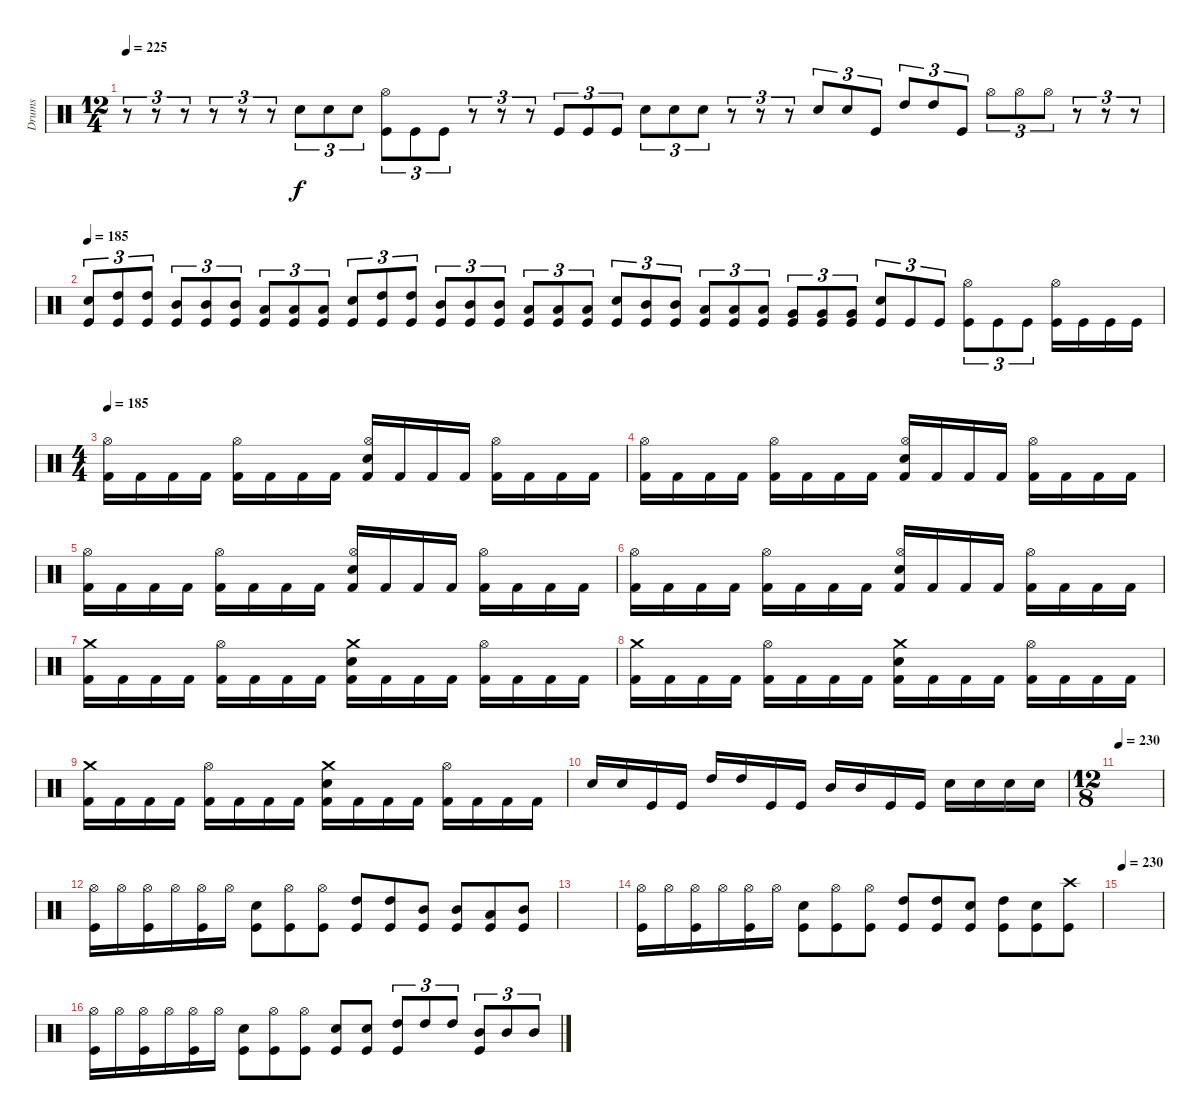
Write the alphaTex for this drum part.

\track ("Drums" "Drums") {instrument percussion}
\staff {score}
\articulation defaults
\ts (12 4)
\tempo 225
\clef neutral
\ks c
r.8{tu (3 2) dy f} r.8{tu (3 2)} r.8{tu (3 2)} r.8{tu (3 2)} r.8{tu (3 2)} r.8{tu (3 2)} "Snare (hit) 2".8{tu (3 2)} "Snare (hit) 2".8{tu (3 2)} "Snare (hit) 2".8{tu (3 2)} ("Kick (hit)" "Hi-Hat (open)").8{tu (3 2)} "Kick (hit)".8{tu (3 2)} "Kick (hit)".8{tu (3 2)} r.8{tu (3 2)} r.8{tu (3 2)} r.8{tu (3 2)} "Kick (hit)".8{tu (3 2)} "Kick (hit)".8{tu (3 2)} "Kick (hit)".8{tu (3 2)} "Snare (hit) 2".8{tu (3 2)} "Snare (hit) 2".8{tu (3 2)} "Snare (hit) 2".8{tu (3 2)} r.8{tu (3 2)} r.8{tu (3 2)} r.8{tu (3 2)} "Snare (hit) 2".8{tu (3 2)} "Snare (hit) 2".8{tu (3 2)} "Kick (hit)".8{tu (3 2)} "High Tom (hit)".8{tu (3 2)} "High Tom (hit)".8{tu (3 2)} "Kick (hit)".8{tu (3 2)} "Hi-Hat (open)".8{tu (3 2)} "Hi-Hat (open)".8{tu (3 2)} "Hi-Hat (open)".8{tu (3 2)} r.8{tu (3 2)} r.8{tu (3 2)} r.8{tu (3 2)} |
\tempo 185
("Kick (hit)" "Snare (hit) 2").8{tu (3 2)} ("Kick (hit)" "High Tom (hit)").8{tu (3 2)} ("Kick (hit)" "High Tom (hit)").8{tu (3 2)} ("Kick (hit)" "Mid Tom (hit)").8{tu (3 2)} ("Kick (hit)" "Mid Tom (hit)").8{tu (3 2)} ("Kick (hit)" "Mid Tom (hit)").8{tu (3 2)} ("Kick (hit)" "Low Tom (hit)").8{tu (3 2)} ("Kick (hit)" "Low Tom (hit)").8{tu (3 2)} ("Kick (hit)" "Low Tom (hit)").8{tu (3 2)} ("Kick (hit)" "Snare (hit) 2").8{tu (3 2)} ("Kick (hit)" "High Tom (hit)").8{tu (3 2)} ("Kick (hit)" "High Tom (hit)").8{tu (3 2)} ("Kick (hit)" "Mid Tom (hit)").8{tu (3 2)} ("Kick (hit)" "Mid Tom (hit)").8{tu (3 2)} ("Kick (hit)" "Mid Tom (hit)").8{tu (3 2)} ("Kick (hit)" "Low Tom (hit)").8{tu (3 2)} ("Kick (hit)" "Low Tom (hit)").8{tu (3 2)} ("Kick (hit)" "Low Tom (hit)").8{tu (3 2)} ("Kick (hit)" "Snare (hit) 2").8{tu (3 2)} ("Kick (hit)" "Mid Tom (hit)").8{tu (3 2)} ("Kick (hit)" "Mid Tom (hit)").8{tu (3 2)} ("Kick (hit)" "Low Tom (hit)").8{tu (3 2)} ("Kick (hit)" "Low Tom (hit)").8{tu (3 2)} ("Kick (hit)" "Low Tom (hit)").8{tu (3 2)} ("Kick (hit)" "Very Low Tom (hit)").8{tu (3 2)} ("Kick (hit)" "Very Low Tom (hit)").8{tu (3 2)} ("Kick (hit)" "Very Low Tom (hit)").8{tu (3 2)} ("Kick (hit)" "Snare (hit) 2").8{tu (3 2)} "Kick (hit)".8{tu (3 2)} "Kick (hit)".8{tu (3 2)} ("Kick (hit)" "Hi-Hat (open)").8{tu (3 2)} "Kick (hit)".8{tu (3 2)} "Kick (hit)".8{tu (3 2)} ("Kick (hit)" "Hi-Hat (open)").16 "Kick (hit)".16 "Kick (hit)".16 "Kick (hit)".16 |
\ts (4 4)
\tempo 185
("Hi-Hat (open)" "Kick (hit) 2").16 "Kick (hit) 2".16 "Kick (hit) 2".16 "Kick (hit) 2".16 ("Hi-Hat (open)" "Kick (hit) 2").16 "Kick (hit) 2".16 "Kick (hit) 2".16 "Kick (hit) 2".16 ("Hi-Hat (open)" "Snare (hit) 2" "Kick (hit) 2").16 "Kick (hit) 2".16 "Kick (hit) 2".16 "Kick (hit) 2".16 ("Hi-Hat (open)" "Kick (hit) 2").16 "Kick (hit) 2".16 "Kick (hit) 2".16 "Kick (hit) 2".16 |
("Hi-Hat (open)" "Kick (hit) 2").16 "Kick (hit) 2".16 "Kick (hit) 2".16 "Kick (hit) 2".16 ("Hi-Hat (open)" "Kick (hit) 2").16 "Kick (hit) 2".16 "Kick (hit) 2".16 "Kick (hit) 2".16 ("Hi-Hat (open)" "Snare (hit) 2" "Kick (hit) 2").16 "Kick (hit) 2".16 "Kick (hit) 2".16 "Kick (hit) 2".16 ("Hi-Hat (open)" "Kick (hit) 2").16 "Kick (hit) 2".16 "Kick (hit) 2".16 "Kick (hit) 2".16 |
("Hi-Hat (open)" "Kick (hit) 2").16 "Kick (hit) 2".16 "Kick (hit) 2".16 "Kick (hit) 2".16 ("Hi-Hat (open)" "Kick (hit) 2").16 "Kick (hit) 2".16 "Kick (hit) 2".16 "Kick (hit) 2".16 ("Hi-Hat (open)" "Snare (hit) 2" "Kick (hit) 2").16 "Kick (hit) 2".16 "Kick (hit) 2".16 "Kick (hit) 2".16 ("Hi-Hat (open)" "Kick (hit) 2").16 "Kick (hit) 2".16 "Kick (hit) 2".16 "Kick (hit) 2".16 |
("Hi-Hat (open)" "Kick (hit) 2").16 "Kick (hit) 2".16 "Kick (hit) 2".16 "Kick (hit) 2".16 ("Hi-Hat (open)" "Kick (hit) 2").16 "Kick (hit) 2".16 "Kick (hit) 2".16 "Kick (hit) 2".16 ("Hi-Hat (open)" "Snare (hit) 2" "Kick (hit) 2").16 "Kick (hit) 2".16 "Kick (hit) 2".16 "Kick (hit) 2".16 ("Hi-Hat (open)" "Kick (hit) 2").16 "Kick (hit) 2".16 "Kick (hit) 2".16 "Kick (hit) 2".16 |
("Crash medium (hit)" "Kick (hit) 2").16 "Kick (hit) 2".16 "Kick (hit) 2".16 "Kick (hit) 2".16 ("Hi-Hat (open)" "Kick (hit) 2").16 "Kick (hit) 2".16 "Kick (hit) 2".16 "Kick (hit) 2".16 ("Crash medium (hit)" "Snare (hit) 2" "Kick (hit) 2").16 "Kick (hit) 2".16 "Kick (hit) 2".16 "Kick (hit) 2".16 ("Hi-Hat (open)" "Kick (hit) 2").16 "Kick (hit) 2".16 "Kick (hit) 2".16 "Kick (hit) 2".16 |
("Crash medium (hit)" "Kick (hit) 2").16 "Kick (hit) 2".16 "Kick (hit) 2".16 "Kick (hit) 2".16 ("Hi-Hat (open)" "Kick (hit) 2").16 "Kick (hit) 2".16 "Kick (hit) 2".16 "Kick (hit) 2".16 ("Crash medium (hit)" "Snare (hit) 2" "Kick (hit) 2").16 "Kick (hit) 2".16 "Kick (hit) 2".16 "Kick (hit) 2".16 ("Hi-Hat (open)" "Kick (hit) 2").16 "Kick (hit) 2".16 "Kick (hit) 2".16 "Kick (hit) 2".16 |
("Crash medium (hit)" "Kick (hit) 2").16 "Kick (hit) 2".16 "Kick (hit) 2".16 "Kick (hit) 2".16 ("Hi-Hat (open)" "Kick (hit) 2").16 "Kick (hit) 2".16 "Kick (hit) 2".16 "Kick (hit) 2".16 ("Crash medium (hit)" "Snare (hit) 2" "Kick (hit) 2").16 "Kick (hit) 2".16 "Kick (hit) 2".16 "Kick (hit) 2".16 ("Hi-Hat (open)" "Kick (hit) 2").16 "Kick (hit) 2".16 "Kick (hit) 2".16 "Kick (hit) 2".16 |
"Snare (hit) 2".16 "Snare (hit) 2".16 "Kick (hit)".16 "Kick (hit)".16 "High Tom (hit)".16 "High Tom (hit)".16 "Kick (hit)".16 "Kick (hit)".16 "Mid Tom (hit)".16 "Mid Tom (hit)".16 "Kick (hit)".16 "Kick (hit)".16 "Snare (hit) 2".16 "Snare (hit) 2".16 "Snare (hit) 2".16 "Snare (hit) 2".16 |
\ts (12 8)
\tempo 230
|
("Kick (hit)" "Hi-Hat (open)").16 "Hi-Hat (open)".16 ("Kick (hit)" "Hi-Hat (open)").16 "Hi-Hat (open)".16 ("Kick (hit)" "Hi-Hat (open)").16 "Hi-Hat (open)".16 ("Kick (hit)" "Snare (hit) 2").8 ("Kick (hit)" "Hi-Hat (open)").8 ("Kick (hit)" "Hi-Hat (open)").8 ("Kick (hit)" "High Tom (hit)").8 ("Kick (hit)" "High Tom (hit)").8 ("Kick (hit)" "Mid Tom (hit)").8 ("Kick (hit)" "Mid Tom (hit)").8 ("Kick (hit)" "Low Tom (hit)").8 ("Kick (hit)" "Mid Tom (hit)").8 |
|
("Kick (hit)" "Hi-Hat (open)").16 "Hi-Hat (open)".16 ("Kick (hit)" "Hi-Hat (open)").16 "Hi-Hat (open)".16 ("Kick (hit)" "Hi-Hat (open)").16 "Hi-Hat (open)".16 ("Kick (hit)" "Snare (hit) 2").8 ("Kick (hit)" "Hi-Hat (open)").8 ("Kick (hit)" "Hi-Hat (open)").8 ("Kick (hit)" "High Tom (hit)").8 ("Kick (hit)" "High Tom (hit)").8 ("Kick (hit)" "Snare (hit) 2").8 ("Kick (hit)" "High Tom (hit)").8 ("Kick (hit)" "Snare (hit) 2").8 ("Kick (hit)" "Crash high (hit)").8 |
\tempo 230
|
("Kick (hit)" "Hi-Hat (open)").16 "Hi-Hat (open)".16 ("Kick (hit)" "Hi-Hat (open)").16 "Hi-Hat (open)".16 ("Kick (hit)" "Hi-Hat (open)").16 "Hi-Hat (open)".16 ("Kick (hit)" "Snare (hit) 2").8 ("Kick (hit)" "Hi-Hat (open)").8 ("Kick (hit)" "Hi-Hat (open)").8 ("Kick (hit)" "Snare (hit) 2").8 ("Kick (hit)" "Snare (hit) 2").8 ("Kick (hit)" "High Tom (hit)").8{tu (3 2)} "High Tom (hit)".8{tu (3 2)} "High Tom (hit)".8{tu (3 2)} ("Kick (hit)" "Mid Tom (hit)").8{tu (3 2)} "Mid Tom (hit)".8{tu (3 2)} "Mid Tom (hit)".8{tu (3 2)}
